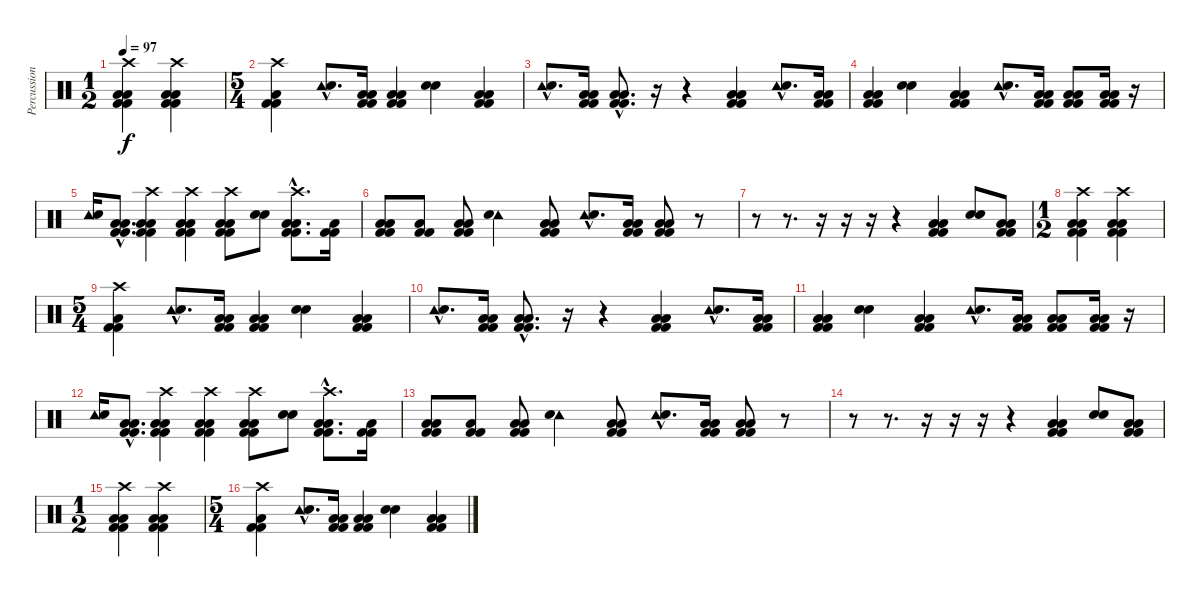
\track ("Percussions" "Percussion") {instrument percussion}
\staff {score}
\articulation defaults
\ts (1 2)
\tempo 97
\clef neutral
\ks c
("Kick (hit) 2" "Kick (hit) 2" "Low Floor Tom (hit)" "Low Floor Tom (hit)" "Crash high (hit)").4{dy f} ("Kick (hit) 2" "Kick (hit) 2" "Low Floor Tom (hit)" "Low Floor Tom (hit)" "Crash high (hit)").4 |
\ts (5 4)
("Kick (hit) 2" "Kick (hit) 2" "Low Floor Tom (hit)" "Crash high (hit)").4 ("Tambourine (hit)"{hac} "Electric Snare (hit)"{hac}).8{d} ("Kick (hit) 2" "Kick (hit) 2" "Low Floor Tom (hit)" "Low Floor Tom (hit)").16 ("Kick (hit) 2" "Kick (hit) 2" "Low Floor Tom (hit)" "Low Floor Tom (hit)").4 ("Electric Snare (hit)" "Electric Snare (hit)").4 ("Kick (hit) 2" "Kick (hit) 2" "Low Floor Tom (hit)" "Low Floor Tom (hit)").4 |
("Tambourine (hit)"{hac} "Electric Snare (hit)"{hac}).8{d} ("Kick (hit) 2" "Kick (hit) 2" "Low Floor Tom (hit)" "Low Floor Tom (hit)").16 ("Kick (hit) 2"{hac} "Kick (hit) 2"{hac} "Low Floor Tom (hit)"{hac} "Low Floor Tom (hit)"{hac}).8{d} r.16 r.4 ("Kick (hit) 2" "Kick (hit) 2" "Low Floor Tom (hit)" "Low Floor Tom (hit)").4 ("Tambourine (hit)"{hac} "Electric Snare (hit)"{hac}).8{d} ("Kick (hit) 2" "Kick (hit) 2" "Low Floor Tom (hit)" "Low Floor Tom (hit)").16 |
("Kick (hit) 2" "Kick (hit) 2" "Low Floor Tom (hit)" "Low Floor Tom (hit)").4 ("Electric Snare (hit)" "Electric Snare (hit)").4 ("Kick (hit) 2" "Kick (hit) 2" "Low Floor Tom (hit)" "Low Floor Tom (hit)").4 ("Tambourine (hit)"{hac} "Electric Snare (hit)"{hac}).8{d} ("Kick (hit) 2" "Kick (hit) 2" "Low Floor Tom (hit)" "Low Floor Tom (hit)").16 ("Kick (hit) 2" "Kick (hit) 2" "Low Floor Tom (hit)" "Low Floor Tom (hit)").8 ("Kick (hit) 2" "Kick (hit) 2" "Low Floor Tom (hit)" "Low Floor Tom (hit)").16 r.16 |
("Tambourine (hit)" "Electric Snare (hit)").16 ("Kick (hit) 2"{hac} "Kick (hit) 2"{hac} "Low Floor Tom (hit)"{hac} "Low Floor Tom (hit)"{hac}).8{d} ("Kick (hit) 2" "Kick (hit) 2" "Low Floor Tom (hit)" "Low Floor Tom (hit)" "Crash high (hit)").4 ("Kick (hit) 2" "Kick (hit) 2" "Low Floor Tom (hit)" "Low Floor Tom (hit)" "Crash high (hit)").4 ("Kick (hit) 2" "Kick (hit) 2" "Low Floor Tom (hit)" "Low Floor Tom (hit)" "Crash high (hit)").8 ("Electric Snare (hit)" "Electric Snare (hit)").8 ("Kick (hit) 2"{hac} "Kick (hit) 2"{hac} "Low Floor Tom (hit)"{hac} "Low Floor Tom (hit)"{hac} "Crash high (hit)"{hac}).8{d} ("Kick (hit) 2" "Kick (hit) 2" "Low Floor Tom (hit)").16 |
("Kick (hit) 2" "Kick (hit) 2" "Low Floor Tom (hit)" "Low Floor Tom (hit)").8 ("Kick (hit) 2" "Kick (hit) 2" "Low Floor Tom (hit)").8 ("Kick (hit) 2" "Kick (hit) 2" "Low Floor Tom (hit)" "Low Floor Tom (hit)").8 ("Tambourine (hit)" "Electric Snare (hit)").4 ("Kick (hit) 2" "Kick (hit) 2" "Low Floor Tom (hit)" "Low Floor Tom (hit)").8 ("Tambourine (hit)"{hac} "Electric Snare (hit)"{hac}).8{d} ("Kick (hit) 2" "Kick (hit) 2" "Low Floor Tom (hit)" "Low Floor Tom (hit)").16 ("Kick (hit) 2" "Kick (hit) 2" "Low Floor Tom (hit)" "Low Floor Tom (hit)").8 r.8 |
r.8 r.8{d} r.16 r.16 r.16 r.4 ("Kick (hit) 2" "Kick (hit) 2" "Low Floor Tom (hit)" "Low Floor Tom (hit)").4 ("Electric Snare (hit)" "Electric Snare (hit)").8 ("Kick (hit) 2" "Kick (hit) 2" "Low Floor Tom (hit)" "Low Floor Tom (hit)").8 |
\ts (1 2)
("Kick (hit) 2" "Kick (hit) 2" "Low Floor Tom (hit)" "Low Floor Tom (hit)" "Crash high (hit)").4 ("Kick (hit) 2" "Kick (hit) 2" "Low Floor Tom (hit)" "Low Floor Tom (hit)" "Crash high (hit)").4 |
\ts (5 4)
("Kick (hit) 2" "Kick (hit) 2" "Low Floor Tom (hit)" "Crash high (hit)").4 ("Tambourine (hit)"{hac} "Electric Snare (hit)"{hac}).8{d} ("Kick (hit) 2" "Kick (hit) 2" "Low Floor Tom (hit)" "Low Floor Tom (hit)").16 ("Kick (hit) 2" "Kick (hit) 2" "Low Floor Tom (hit)" "Low Floor Tom (hit)").4 ("Electric Snare (hit)" "Electric Snare (hit)").4 ("Kick (hit) 2" "Kick (hit) 2" "Low Floor Tom (hit)" "Low Floor Tom (hit)").4 |
("Tambourine (hit)"{hac} "Electric Snare (hit)"{hac}).8{d} ("Kick (hit) 2" "Kick (hit) 2" "Low Floor Tom (hit)" "Low Floor Tom (hit)").16 ("Kick (hit) 2"{hac} "Kick (hit) 2"{hac} "Low Floor Tom (hit)"{hac} "Low Floor Tom (hit)"{hac}).8{d} r.16 r.4 ("Kick (hit) 2" "Kick (hit) 2" "Low Floor Tom (hit)" "Low Floor Tom (hit)").4 ("Tambourine (hit)"{hac} "Electric Snare (hit)"{hac}).8{d} ("Kick (hit) 2" "Kick (hit) 2" "Low Floor Tom (hit)" "Low Floor Tom (hit)").16 |
("Kick (hit) 2" "Kick (hit) 2" "Low Floor Tom (hit)" "Low Floor Tom (hit)").4 ("Electric Snare (hit)" "Electric Snare (hit)").4 ("Kick (hit) 2" "Kick (hit) 2" "Low Floor Tom (hit)" "Low Floor Tom (hit)").4 ("Tambourine (hit)"{hac} "Electric Snare (hit)"{hac}).8{d} ("Kick (hit) 2" "Kick (hit) 2" "Low Floor Tom (hit)" "Low Floor Tom (hit)").16 ("Kick (hit) 2" "Kick (hit) 2" "Low Floor Tom (hit)" "Low Floor Tom (hit)").8 ("Kick (hit) 2" "Kick (hit) 2" "Low Floor Tom (hit)" "Low Floor Tom (hit)").16 r.16 |
("Tambourine (hit)" "Electric Snare (hit)").16 ("Kick (hit) 2"{hac} "Kick (hit) 2"{hac} "Low Floor Tom (hit)"{hac} "Low Floor Tom (hit)"{hac}).8{d} ("Kick (hit) 2" "Kick (hit) 2" "Low Floor Tom (hit)" "Low Floor Tom (hit)" "Crash high (hit)").4 ("Kick (hit) 2" "Kick (hit) 2" "Low Floor Tom (hit)" "Low Floor Tom (hit)" "Crash high (hit)").4 ("Kick (hit) 2" "Kick (hit) 2" "Low Floor Tom (hit)" "Low Floor Tom (hit)" "Crash high (hit)").8 ("Electric Snare (hit)" "Electric Snare (hit)").8 ("Kick (hit) 2"{hac} "Kick (hit) 2"{hac} "Low Floor Tom (hit)"{hac} "Low Floor Tom (hit)"{hac} "Crash high (hit)"{hac}).8{d} ("Kick (hit) 2" "Kick (hit) 2" "Low Floor Tom (hit)").16 |
("Kick (hit) 2" "Kick (hit) 2" "Low Floor Tom (hit)" "Low Floor Tom (hit)").8 ("Kick (hit) 2" "Kick (hit) 2" "Low Floor Tom (hit)").8 ("Kick (hit) 2" "Kick (hit) 2" "Low Floor Tom (hit)" "Low Floor Tom (hit)").8 ("Tambourine (hit)" "Electric Snare (hit)").4 ("Kick (hit) 2" "Kick (hit) 2" "Low Floor Tom (hit)" "Low Floor Tom (hit)").8 ("Tambourine (hit)"{hac} "Electric Snare (hit)"{hac}).8{d} ("Kick (hit) 2" "Kick (hit) 2" "Low Floor Tom (hit)" "Low Floor Tom (hit)").16 ("Kick (hit) 2" "Kick (hit) 2" "Low Floor Tom (hit)" "Low Floor Tom (hit)").8 r.8 |
r.8 r.8{d} r.16 r.16 r.16 r.4 ("Kick (hit) 2" "Kick (hit) 2" "Low Floor Tom (hit)" "Low Floor Tom (hit)").4 ("Electric Snare (hit)" "Electric Snare (hit)").8 ("Kick (hit) 2" "Kick (hit) 2" "Low Floor Tom (hit)" "Low Floor Tom (hit)").8 |
\ts (1 2)
("Kick (hit) 2" "Kick (hit) 2" "Low Floor Tom (hit)" "Low Floor Tom (hit)" "Crash high (hit)").4 ("Kick (hit) 2" "Kick (hit) 2" "Low Floor Tom (hit)" "Low Floor Tom (hit)" "Crash high (hit)").4 |
\ts (5 4)
("Kick (hit) 2" "Kick (hit) 2" "Low Floor Tom (hit)" "Crash high (hit)").4 ("Tambourine (hit)"{hac} "Electric Snare (hit)"{hac}).8{d} ("Kick (hit) 2" "Kick (hit) 2" "Low Floor Tom (hit)" "Low Floor Tom (hit)").16 ("Kick (hit) 2" "Kick (hit) 2" "Low Floor Tom (hit)" "Low Floor Tom (hit)").4 ("Electric Snare (hit)" "Electric Snare (hit)").4 ("Kick (hit) 2" "Kick (hit) 2" "Low Floor Tom (hit)" "Low Floor Tom (hit)").4
